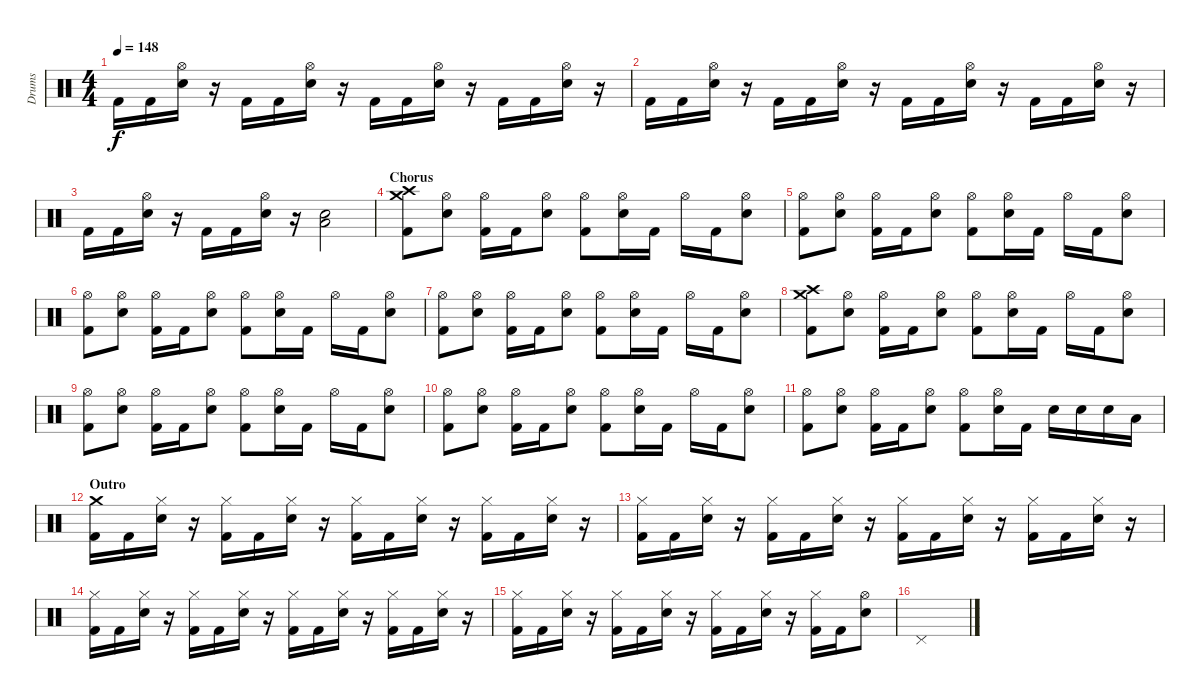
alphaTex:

\track ("Drums" "Drums") {instrument percussion}
\staff {score}
\articulation defaults
\ts (4 4)
\tempo 148
\clef neutral
\ks c "Kick (hit) 2".16{dy f} "Kick (hit) 2".16
("Hi-Hat (open)" "Electric Snare (hit)").16 r.16 "Kick (hit) 2".16 "Kick (hit) 2".16 ("Hi-Hat (open)" "Electric Snare (hit)").16 r.16 "Kick (hit) 2".16 "Kick (hit) 2".16 ("Hi-Hat (open)" "Electric Snare (hit)").16 r.16 "Kick (hit) 2".16 "Kick (hit) 2".16 ("Hi-Hat (open)" "Electric Snare (hit)").16 r.16 |
"Kick (hit) 2".16 "Kick (hit) 2".16 ("Hi-Hat (open)" "Electric Snare (hit)").16 r.16 "Kick (hit) 2".16 "Kick (hit) 2".16 ("Hi-Hat (open)" "Electric Snare (hit)").16 r.16 "Kick (hit) 2".16 "Kick (hit) 2".16 ("Hi-Hat (open)" "Electric Snare (hit)").16 r.16 "Kick (hit) 2".16 "Kick (hit) 2".16 ("Hi-Hat (open)" "Electric Snare (hit)").16 r.16 |
"Kick (hit) 2".16 "Kick (hit) 2".16 ("Hi-Hat (open)" "Electric Snare (hit)").16 r.16 "Kick (hit) 2".16 "Kick (hit) 2".16 ("Hi-Hat (open)" "Electric Snare (hit)").16 r.16 ("Electric Snare (hit)" "Low Tom (hit)").2 |
\section ("" "Chorus")
("Crash high (hit)" "Crash medium (hit)" "Kick (hit) 2").8 ("Hi-Hat (open)" "Electric Snare (hit)").8 ("Hi-Hat (open)" "Kick (hit) 2").16 "Kick (hit) 2".16 ("Hi-Hat (open)" "Electric Snare (hit)").8 ("Hi-Hat (open)" "Kick (hit) 2").8 ("Hi-Hat (open)" "Electric Snare (hit)").16 "Kick (hit) 2".16 "Hi-Hat (open)".16 "Kick (hit) 2".16 ("Hi-Hat (open)" "Electric Snare (hit)").8 |
("Hi-Hat (open)" "Kick (hit) 2").8 ("Hi-Hat (open)" "Electric Snare (hit)").8 ("Hi-Hat (open)" "Kick (hit) 2").16 "Kick (hit) 2".16 ("Hi-Hat (open)" "Electric Snare (hit)").8 ("Hi-Hat (open)" "Kick (hit) 2").8 ("Hi-Hat (open)" "Electric Snare (hit)").16 "Kick (hit) 2".16 "Hi-Hat (open)".16 "Kick (hit) 2".16 ("Hi-Hat (open)" "Electric Snare (hit)").8 |
("Hi-Hat (open)" "Kick (hit) 2").8 ("Hi-Hat (open)" "Electric Snare (hit)").8 ("Hi-Hat (open)" "Kick (hit) 2").16 "Kick (hit) 2".16 ("Hi-Hat (open)" "Electric Snare (hit)").8 ("Hi-Hat (open)" "Kick (hit) 2").8 ("Hi-Hat (open)" "Electric Snare (hit)").16 "Kick (hit) 2".16 "Hi-Hat (open)".16 "Kick (hit) 2".16 ("Hi-Hat (open)" "Electric Snare (hit)").8 |
("Hi-Hat (open)" "Kick (hit) 2").8 ("Hi-Hat (open)" "Electric Snare (hit)").8 ("Hi-Hat (open)" "Kick (hit) 2").16 "Kick (hit) 2".16 ("Hi-Hat (open)" "Electric Snare (hit)").8 ("Hi-Hat (open)" "Kick (hit) 2").8 ("Hi-Hat (open)" "Electric Snare (hit)").16 "Kick (hit) 2".16 "Hi-Hat (open)".16 "Kick (hit) 2".16 ("Hi-Hat (open)" "Electric Snare (hit)").8 |
("Crash high (hit)" "Crash medium (hit)" "Kick (hit) 2").8 ("Hi-Hat (open)" "Electric Snare (hit)").8 ("Hi-Hat (open)" "Kick (hit) 2").16 "Kick (hit) 2".16 ("Hi-Hat (open)" "Electric Snare (hit)").8 ("Hi-Hat (open)" "Kick (hit) 2").8 ("Hi-Hat (open)" "Electric Snare (hit)").16 "Kick (hit) 2".16 "Hi-Hat (open)".16 "Kick (hit) 2".16 ("Hi-Hat (open)" "Electric Snare (hit)").8 |
("Hi-Hat (open)" "Kick (hit) 2").8 ("Hi-Hat (open)" "Electric Snare (hit)").8 ("Hi-Hat (open)" "Kick (hit) 2").16 "Kick (hit) 2".16 ("Hi-Hat (open)" "Electric Snare (hit)").8 ("Hi-Hat (open)" "Kick (hit) 2").8 ("Hi-Hat (open)" "Electric Snare (hit)").16 "Kick (hit) 2".16 "Hi-Hat (open)".16 "Kick (hit) 2".16 ("Hi-Hat (open)" "Electric Snare (hit)").8 |
("Hi-Hat (open)" "Kick (hit) 2").8 ("Hi-Hat (open)" "Electric Snare (hit)").8 ("Hi-Hat (open)" "Kick (hit) 2").16 "Kick (hit) 2".16 ("Hi-Hat (open)" "Electric Snare (hit)").8 ("Hi-Hat (open)" "Kick (hit) 2").8 ("Hi-Hat (open)" "Electric Snare (hit)").16 "Kick (hit) 2".16 "Hi-Hat (open)".16 "Kick (hit) 2".16 ("Hi-Hat (open)" "Electric Snare (hit)").8 |
("Hi-Hat (open)" "Kick (hit) 2").8 ("Hi-Hat (open)" "Electric Snare (hit)").8 ("Hi-Hat (open)" "Kick (hit) 2").16 "Kick (hit) 2".16 ("Hi-Hat (open)" "Electric Snare (hit)").8 ("Hi-Hat (open)" "Kick (hit) 2").8 ("Hi-Hat (open)" "Electric Snare (hit)").16 "Kick (hit) 2".16 "Electric Snare (hit)".16 "Electric Snare (hit)".16 "Electric Snare (hit)".16 "Low Tom (hit)".16 |
\section ("" "Outro")
("Crash medium (hit)" "Kick (hit) 2").16 "Kick (hit) 2".16 ("Hi-Hat (closed)" "Electric Snare (hit)").16 r.16 ("Hi-Hat (closed)" "Kick (hit) 2").16 "Kick (hit) 2".16 ("Hi-Hat (closed)" "Electric Snare (hit)").16 r.16 ("Hi-Hat (closed)" "Kick (hit) 2").16 "Kick (hit) 2".16 ("Hi-Hat (closed)" "Electric Snare (hit)").16 r.16 ("Hi-Hat (closed)" "Kick (hit) 2").16 "Kick (hit) 2".16 ("Hi-Hat (closed)" "Electric Snare (hit)").16 r.16 |
("Hi-Hat (closed)" "Kick (hit) 2").16 "Kick (hit) 2".16 ("Hi-Hat (closed)" "Electric Snare (hit)").16 r.16 ("Hi-Hat (closed)" "Kick (hit) 2").16 "Kick (hit) 2".16 ("Hi-Hat (closed)" "Electric Snare (hit)").16 r.16 ("Hi-Hat (closed)" "Kick (hit) 2").16 "Kick (hit) 2".16 ("Hi-Hat (closed)" "Electric Snare (hit)").16 r.16 ("Hi-Hat (closed)" "Kick (hit) 2").16 "Kick (hit) 2".16 ("Hi-Hat (closed)" "Electric Snare (hit)").16 r.16 |
("Hi-Hat (closed)" "Kick (hit) 2").16 "Kick (hit) 2".16 ("Hi-Hat (closed)" "Electric Snare (hit)").16 r.16 ("Hi-Hat (closed)" "Kick (hit) 2").16 "Kick (hit) 2".16 ("Hi-Hat (closed)" "Electric Snare (hit)").16 r.16 ("Hi-Hat (closed)" "Kick (hit) 2").16 "Kick (hit) 2".16 ("Hi-Hat (closed)" "Electric Snare (hit)").16 r.16 ("Hi-Hat (closed)" "Kick (hit) 2").16 "Kick (hit) 2".16 ("Hi-Hat (closed)" "Electric Snare (hit)").16 r.16 |
("Hi-Hat (closed)" "Kick (hit) 2").16 "Kick (hit) 2".16 ("Hi-Hat (closed)" "Electric Snare (hit)").16 r.16 ("Hi-Hat (closed)" "Kick (hit) 2").16 "Kick (hit) 2".16 ("Hi-Hat (closed)" "Electric Snare (hit)").16 r.16 ("Hi-Hat (closed)" "Kick (hit) 2").16 "Kick (hit) 2".16 ("Hi-Hat (closed)" "Electric Snare (hit)").16 r.16 ("Hi-Hat (closed)" "Kick (hit) 2").16 "Kick (hit) 2".16 ("Hi-Hat (open)" "Electric Snare (hit)").8 |
\section ("" "")
"Pedal Hi-Hat (hit)".1
